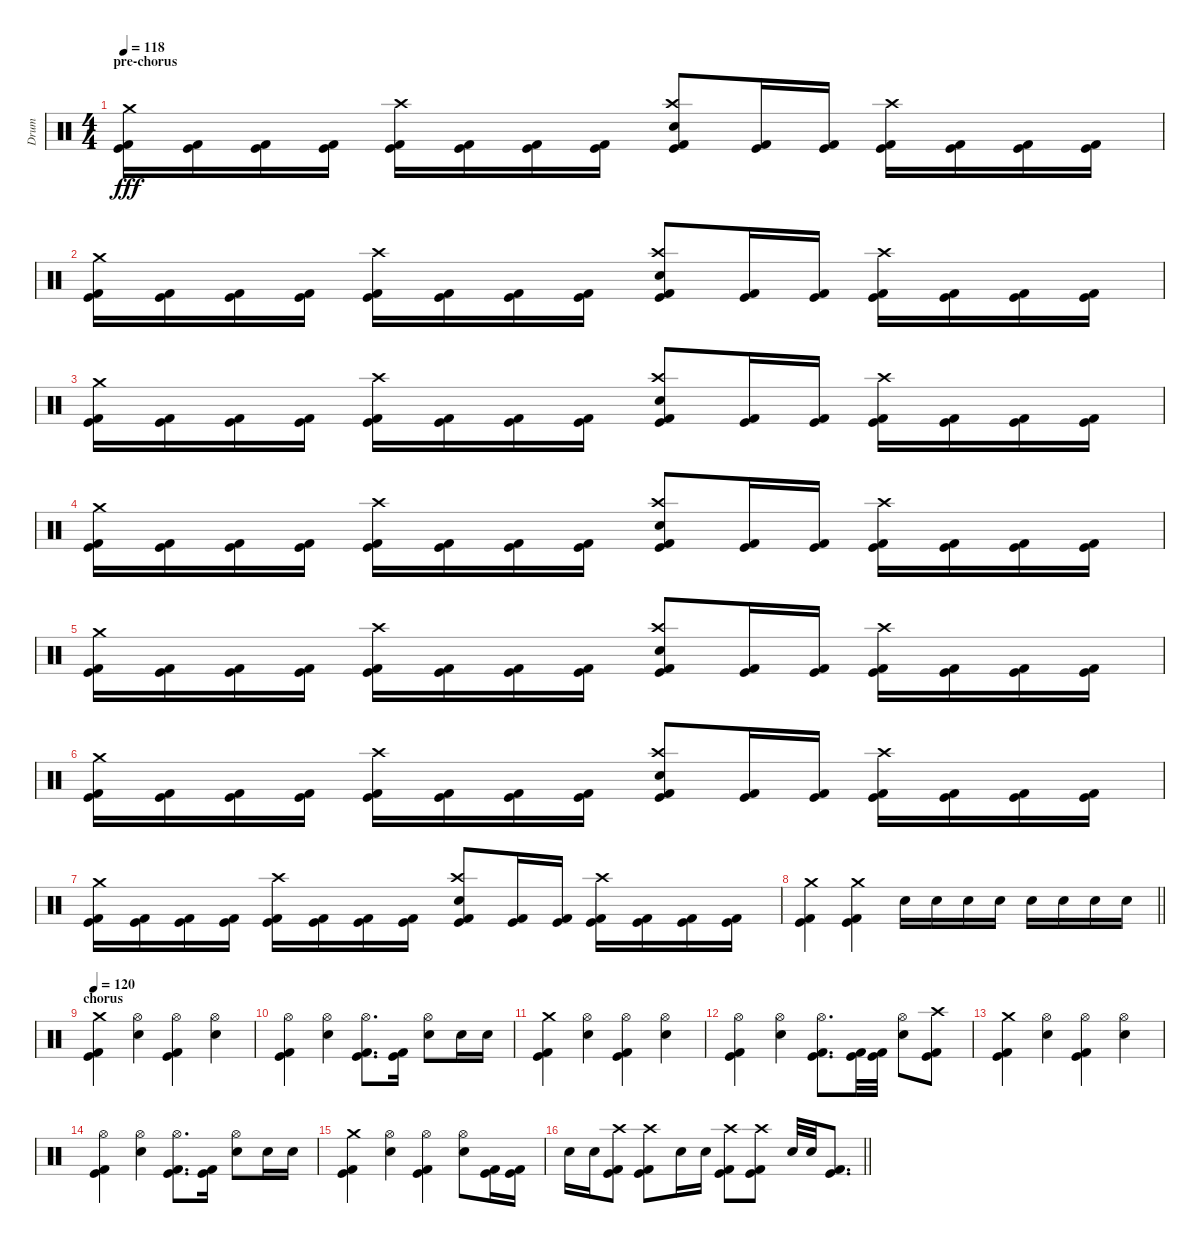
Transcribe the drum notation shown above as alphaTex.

\track ("Drum" "Drum") {instrument percussion}
\staff {score}
\articulation defaults
\ts (4 4)
\section ("" "pre-chorus")
\tempo 118
\clef neutral
\ks c
("Crash medium (hit)" "Kick (hit)" "Kick (hit) 2").16{dy fff} ("Kick (hit)" "Kick (hit) 2").16 ("Kick (hit)" "Kick (hit) 2").16 ("Kick (hit)" "Kick (hit) 2").16 ("Crash high (hit)" "Kick (hit)" "Kick (hit) 2").16 ("Kick (hit)" "Kick (hit) 2").16 ("Kick (hit)" "Kick (hit) 2").16 ("Kick (hit)" "Kick (hit) 2").16 ("Crash high (hit)" "Electric Snare (hit)" "Kick (hit)" "Kick (hit) 2").8 ("Kick (hit)" "Kick (hit) 2").16 ("Kick (hit)" "Kick (hit) 2").16 ("Crash high (hit)" "Kick (hit)" "Kick (hit) 2").16 ("Kick (hit)" "Kick (hit) 2").16 ("Kick (hit)" "Kick (hit) 2").16 ("Kick (hit)" "Kick (hit) 2").16 |
("Crash medium (hit)" "Kick (hit)" "Kick (hit) 2").16 ("Kick (hit)" "Kick (hit) 2").16 ("Kick (hit)" "Kick (hit) 2").16 ("Kick (hit)" "Kick (hit) 2").16 ("Crash high (hit)" "Kick (hit)" "Kick (hit) 2").16 ("Kick (hit)" "Kick (hit) 2").16 ("Kick (hit)" "Kick (hit) 2").16 ("Kick (hit)" "Kick (hit) 2").16 ("Crash high (hit)" "Electric Snare (hit)" "Kick (hit)" "Kick (hit) 2").8 ("Kick (hit)" "Kick (hit) 2").16 ("Kick (hit)" "Kick (hit) 2").16 ("Crash high (hit)" "Kick (hit)" "Kick (hit) 2").16 ("Kick (hit)" "Kick (hit) 2").16 ("Kick (hit)" "Kick (hit) 2").16 ("Kick (hit)" "Kick (hit) 2").16 |
("Crash medium (hit)" "Kick (hit)" "Kick (hit) 2").16 ("Kick (hit)" "Kick (hit) 2").16 ("Kick (hit)" "Kick (hit) 2").16 ("Kick (hit)" "Kick (hit) 2").16 ("Crash high (hit)" "Kick (hit)" "Kick (hit) 2").16 ("Kick (hit)" "Kick (hit) 2").16 ("Kick (hit)" "Kick (hit) 2").16 ("Kick (hit)" "Kick (hit) 2").16 ("Crash high (hit)" "Electric Snare (hit)" "Kick (hit)" "Kick (hit) 2").8 ("Kick (hit)" "Kick (hit) 2").16 ("Kick (hit)" "Kick (hit) 2").16 ("Crash high (hit)" "Kick (hit)" "Kick (hit) 2").16 ("Kick (hit)" "Kick (hit) 2").16 ("Kick (hit)" "Kick (hit) 2").16 ("Kick (hit)" "Kick (hit) 2").16 |
("Crash medium (hit)" "Kick (hit)" "Kick (hit) 2").16 ("Kick (hit)" "Kick (hit) 2").16 ("Kick (hit)" "Kick (hit) 2").16 ("Kick (hit)" "Kick (hit) 2").16 ("Crash high (hit)" "Kick (hit)" "Kick (hit) 2").16 ("Kick (hit)" "Kick (hit) 2").16 ("Kick (hit)" "Kick (hit) 2").16 ("Kick (hit)" "Kick (hit) 2").16 ("Crash high (hit)" "Electric Snare (hit)" "Kick (hit)" "Kick (hit) 2").8 ("Kick (hit)" "Kick (hit) 2").16 ("Kick (hit)" "Kick (hit) 2").16 ("Crash high (hit)" "Kick (hit)" "Kick (hit) 2").16 ("Kick (hit)" "Kick (hit) 2").16 ("Kick (hit)" "Kick (hit) 2").16 ("Kick (hit)" "Kick (hit) 2").16 |
("Crash medium (hit)" "Kick (hit)" "Kick (hit) 2").16 ("Kick (hit)" "Kick (hit) 2").16 ("Kick (hit)" "Kick (hit) 2").16 ("Kick (hit)" "Kick (hit) 2").16 ("Crash high (hit)" "Kick (hit)" "Kick (hit) 2").16 ("Kick (hit)" "Kick (hit) 2").16 ("Kick (hit)" "Kick (hit) 2").16 ("Kick (hit)" "Kick (hit) 2").16 ("Crash high (hit)" "Electric Snare (hit)" "Kick (hit)" "Kick (hit) 2").8 ("Kick (hit)" "Kick (hit) 2").16 ("Kick (hit)" "Kick (hit) 2").16 ("Crash high (hit)" "Kick (hit)" "Kick (hit) 2").16 ("Kick (hit)" "Kick (hit) 2").16 ("Kick (hit)" "Kick (hit) 2").16 ("Kick (hit)" "Kick (hit) 2").16 |
("Crash medium (hit)" "Kick (hit)" "Kick (hit) 2").16 ("Kick (hit)" "Kick (hit) 2").16 ("Kick (hit)" "Kick (hit) 2").16 ("Kick (hit)" "Kick (hit) 2").16 ("Crash high (hit)" "Kick (hit)" "Kick (hit) 2").16 ("Kick (hit)" "Kick (hit) 2").16 ("Kick (hit)" "Kick (hit) 2").16 ("Kick (hit)" "Kick (hit) 2").16 ("Crash high (hit)" "Electric Snare (hit)" "Kick (hit)" "Kick (hit) 2").8 ("Kick (hit)" "Kick (hit) 2").16 ("Kick (hit)" "Kick (hit) 2").16 ("Crash high (hit)" "Kick (hit)" "Kick (hit) 2").16 ("Kick (hit)" "Kick (hit) 2").16 ("Kick (hit)" "Kick (hit) 2").16 ("Kick (hit)" "Kick (hit) 2").16 |
("Crash medium (hit)" "Kick (hit)" "Kick (hit) 2").16 ("Kick (hit)" "Kick (hit) 2").16 ("Kick (hit)" "Kick (hit) 2").16 ("Kick (hit)" "Kick (hit) 2").16 ("Crash high (hit)" "Kick (hit)" "Kick (hit) 2").16 ("Kick (hit)" "Kick (hit) 2").16 ("Kick (hit)" "Kick (hit) 2").16 ("Kick (hit)" "Kick (hit) 2").16 ("Crash high (hit)" "Electric Snare (hit)" "Kick (hit)" "Kick (hit) 2").8 ("Kick (hit)" "Kick (hit) 2").16 ("Kick (hit)" "Kick (hit) 2").16 ("Crash high (hit)" "Kick (hit)" "Kick (hit) 2").16 ("Kick (hit)" "Kick (hit) 2").16 ("Kick (hit)" "Kick (hit) 2").16 ("Kick (hit)" "Kick (hit) 2").16 |
\barLineRight lightlight
("Crash medium (hit)" "Kick (hit)" "Kick (hit) 2").4 ("Crash medium (hit)" "Kick (hit)" "Kick (hit) 2").4 "Electric Snare (hit)".16 "Electric Snare (hit)".16 "Electric Snare (hit)".16 "Electric Snare (hit)".16 "Electric Snare (hit)".16 "Electric Snare (hit)".16 "Electric Snare (hit)".16 "Electric Snare (hit)".16 |
\section ("" "chorus")
\tempo 120
("Crash medium (hit)" "Kick (hit)" "Kick (hit) 2").4 ("Electric Snare (hit)" "Hi-Hat (open)").4 ("Hi-Hat (open)" "Kick (hit)" "Kick (hit) 2").4 ("Electric Snare (hit)" "Hi-Hat (open)").4 |
("Hi-Hat (open)" "Kick (hit)" "Kick (hit) 2").4 ("Electric Snare (hit)" "Hi-Hat (open)").4 ("Hi-Hat (open)" "Kick (hit)" "Kick (hit) 2").8{d} ("Kick (hit)" "Kick (hit) 2").16 ("Electric Snare (hit)" "Hi-Hat (open)").8 "Electric Snare (hit)".16 "Electric Snare (hit)".16 |
("Crash medium (hit)" "Kick (hit)" "Kick (hit) 2").4 ("Electric Snare (hit)" "Hi-Hat (open)").4 ("Hi-Hat (open)" "Kick (hit)" "Kick (hit) 2").4 ("Electric Snare (hit)" "Hi-Hat (open)").4 |
("Hi-Hat (open)" "Kick (hit)" "Kick (hit) 2").4 ("Electric Snare (hit)" "Hi-Hat (open)").4 ("Hi-Hat (open)" "Kick (hit)" "Kick (hit) 2").8{d} ("Kick (hit)" "Kick (hit) 2").32 ("Kick (hit)" "Kick (hit) 2").32 ("Electric Snare (hit)" "Hi-Hat (open)").8 ("Crash high (hit)" "Kick (hit)" "Kick (hit) 2").8 |
("Crash medium (hit)" "Kick (hit)" "Kick (hit) 2").4 ("Electric Snare (hit)" "Hi-Hat (open)").4 ("Hi-Hat (open)" "Kick (hit)" "Kick (hit) 2").4 ("Electric Snare (hit)" "Hi-Hat (open)").4 |
("Hi-Hat (open)" "Kick (hit)" "Kick (hit) 2").4 ("Electric Snare (hit)" "Hi-Hat (open)").4 ("Hi-Hat (open)" "Kick (hit)" "Kick (hit) 2").8{d} ("Kick (hit)" "Kick (hit) 2").16 ("Electric Snare (hit)" "Hi-Hat (open)").8 "Electric Snare (hit)".16 "Electric Snare (hit)".16 |
("Crash medium (hit)" "Kick (hit)" "Kick (hit) 2").4 ("Electric Snare (hit)" "Hi-Hat (open)").4 ("Hi-Hat (open)" "Kick (hit)" "Kick (hit) 2").4 ("Electric Snare (hit)" "Hi-Hat (open)").8 ("Kick (hit)" "Kick (hit) 2").16 ("Kick (hit)" "Kick (hit) 2").16 |
\barLineRight lightlight "Electric Snare (hit)".16 "Electric Snare (hit)".16
("Crash high (hit)" "Kick (hit)" "Kick (hit) 2").8 ("Crash high (hit)" "Kick (hit)" "Kick (hit) 2").8 "Electric Snare (hit)".16 "Electric Snare (hit)".16 ("Crash high (hit)" "Kick (hit)" "Kick (hit) 2").8 ("Crash high (hit)" "Kick (hit)" "Kick (hit) 2").8 "Electric Snare (hit)".32 "Electric Snare (hit)".32 ("Kick (hit)" "Kick (hit) 2").8{d}
